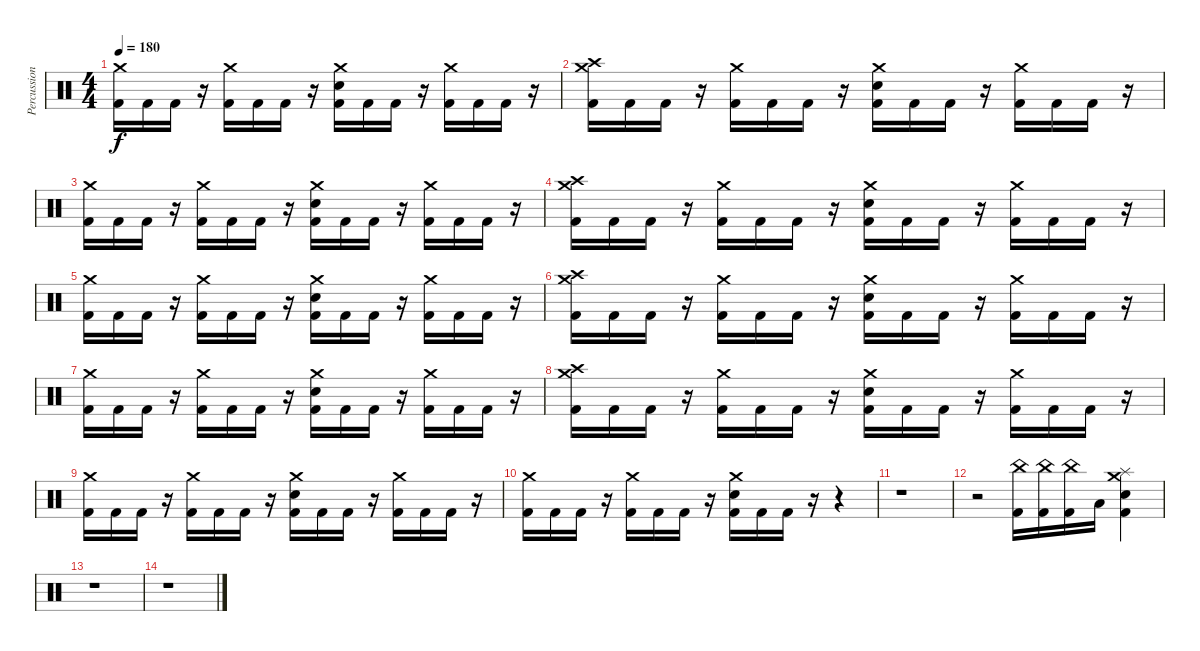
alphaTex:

\track ("Percussion" "Percussion") {instrument percussion}
\staff {score}
\articulation defaults
\ts (4 4)
\tempo 180
\clef neutral
\ks c
("Crash medium (hit)" "Kick (hit) 2").16{dy f} "Kick (hit) 2".16 "Kick (hit) 2".16 r.16 ("Crash medium (hit)" "Kick (hit) 2").16 "Kick (hit) 2".16 "Kick (hit) 2".16 r.16 ("Crash medium (hit)" "Electric Snare (hit)" "Kick (hit) 2").16 "Kick (hit) 2".16 "Kick (hit) 2".16 r.16 ("Crash medium (hit)" "Kick (hit) 2").16 "Kick (hit) 2".16 "Kick (hit) 2".16 r.16 |
("Crash medium (hit)" "Crash high (hit)" "Kick (hit) 2").16 "Kick (hit) 2".16 "Kick (hit) 2".16 r.16 ("Crash medium (hit)" "Kick (hit) 2").16 "Kick (hit) 2".16 "Kick (hit) 2".16 r.16 ("Crash medium (hit)" "Electric Snare (hit)" "Kick (hit) 2").16 "Kick (hit) 2".16 "Kick (hit) 2".16 r.16 ("Crash medium (hit)" "Kick (hit) 2").16 "Kick (hit) 2".16 "Kick (hit) 2".16 r.16 |
("Crash medium (hit)" "Kick (hit) 2").16 "Kick (hit) 2".16 "Kick (hit) 2".16 r.16 ("Crash medium (hit)" "Kick (hit) 2").16 "Kick (hit) 2".16 "Kick (hit) 2".16 r.16 ("Crash medium (hit)" "Electric Snare (hit)" "Kick (hit) 2").16 "Kick (hit) 2".16 "Kick (hit) 2".16 r.16 ("Crash medium (hit)" "Kick (hit) 2").16 "Kick (hit) 2".16 "Kick (hit) 2".16 r.16 |
("Crash medium (hit)" "Crash high (hit)" "Kick (hit) 2").16 "Kick (hit) 2".16 "Kick (hit) 2".16 r.16 ("Crash medium (hit)" "Kick (hit) 2").16 "Kick (hit) 2".16 "Kick (hit) 2".16 r.16 ("Crash medium (hit)" "Electric Snare (hit)" "Kick (hit) 2").16 "Kick (hit) 2".16 "Kick (hit) 2".16 r.16 ("Crash medium (hit)" "Kick (hit) 2").16 "Kick (hit) 2".16 "Kick (hit) 2".16 r.16 |
("Crash medium (hit)" "Kick (hit) 2").16 "Kick (hit) 2".16 "Kick (hit) 2".16 r.16 ("Crash medium (hit)" "Kick (hit) 2").16 "Kick (hit) 2".16 "Kick (hit) 2".16 r.16 ("Crash medium (hit)" "Electric Snare (hit)" "Kick (hit) 2").16 "Kick (hit) 2".16 "Kick (hit) 2".16 r.16 ("Crash medium (hit)" "Kick (hit) 2").16 "Kick (hit) 2".16 "Kick (hit) 2".16 r.16 |
("Crash medium (hit)" "Crash high (hit)" "Kick (hit) 2").16 "Kick (hit) 2".16 "Kick (hit) 2".16 r.16 ("Crash medium (hit)" "Kick (hit) 2").16 "Kick (hit) 2".16 "Kick (hit) 2".16 r.16 ("Crash medium (hit)" "Electric Snare (hit)" "Kick (hit) 2").16 "Kick (hit) 2".16 "Kick (hit) 2".16 r.16 ("Crash medium (hit)" "Kick (hit) 2").16 "Kick (hit) 2".16 "Kick (hit) 2".16 r.16 |
("Crash medium (hit)" "Kick (hit) 2").16 "Kick (hit) 2".16 "Kick (hit) 2".16 r.16 ("Crash medium (hit)" "Kick (hit) 2").16 "Kick (hit) 2".16 "Kick (hit) 2".16 r.16 ("Crash medium (hit)" "Electric Snare (hit)" "Kick (hit) 2").16 "Kick (hit) 2".16 "Kick (hit) 2".16 r.16 ("Crash medium (hit)" "Kick (hit) 2").16 "Kick (hit) 2".16 "Kick (hit) 2".16 r.16 |
("Crash medium (hit)" "Crash high (hit)" "Kick (hit) 2").16 "Kick (hit) 2".16 "Kick (hit) 2".16 r.16 ("Crash medium (hit)" "Kick (hit) 2").16 "Kick (hit) 2".16 "Kick (hit) 2".16 r.16 ("Crash medium (hit)" "Electric Snare (hit)" "Kick (hit) 2").16 "Kick (hit) 2".16 "Kick (hit) 2".16 r.16 ("Crash medium (hit)" "Kick (hit) 2").16 "Kick (hit) 2".16 "Kick (hit) 2".16 r.16 |
("Crash medium (hit)" "Kick (hit) 2").16 "Kick (hit) 2".16 "Kick (hit) 2".16 r.16 ("Crash medium (hit)" "Kick (hit) 2").16 "Kick (hit) 2".16 "Kick (hit) 2".16 r.16 ("Crash medium (hit)" "Electric Snare (hit)" "Kick (hit) 2").16 "Kick (hit) 2".16 "Kick (hit) 2".16 r.16 ("Crash medium (hit)" "Kick (hit) 2").16 "Kick (hit) 2".16 "Kick (hit) 2".16 r.16 |
("Crash medium (hit)" "Kick (hit) 2").16 "Kick (hit) 2".16 "Kick (hit) 2".16 r.16 ("Crash medium (hit)" "Kick (hit) 2").16 "Kick (hit) 2".16 "Kick (hit) 2".16 r.16 ("Crash medium (hit)" "Electric Snare (hit)" "Kick (hit) 2").16 "Kick (hit) 2".16 "Kick (hit) 2".16 r.16 r.4 |
r.1 |
r.2 ("China (hit)" "Kick (hit) 2").16 ("China (hit)" "Kick (hit) 2").16 ("China (hit)" "Kick (hit) 2").16 "Low Floor Tom (hit)".16 ("Splash (hit)" "Crash medium (hit)" "Electric Snare (hit)" "Kick (hit) 2").4 |
r.1 |
r.1
